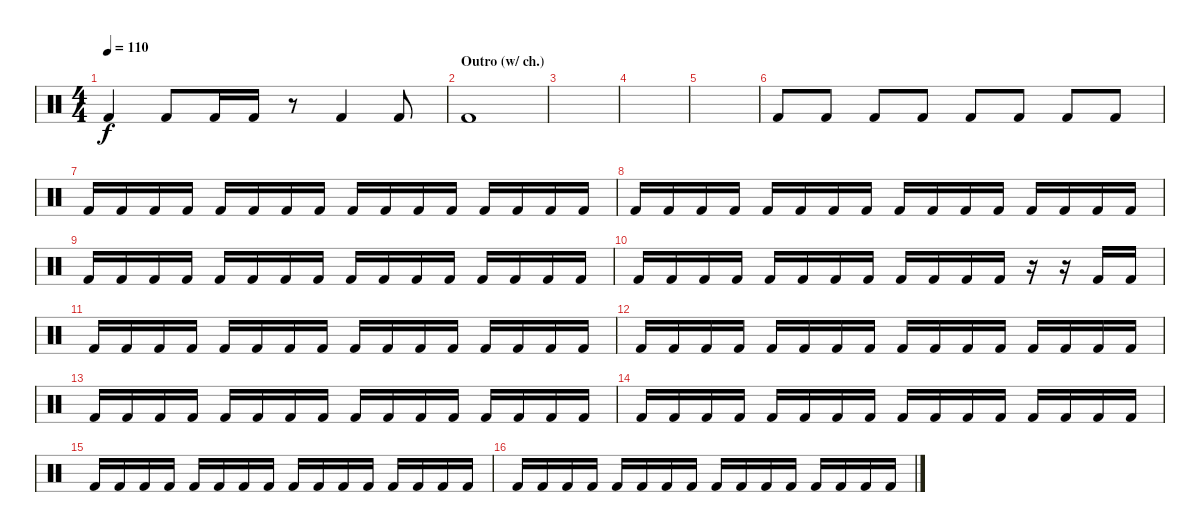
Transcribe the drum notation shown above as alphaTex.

\track "" {instrument percussion}
\staff {score}
\articulation defaults
\ts (4 4)
\tempo 110
\clef neutral
\ks c "Kick (hit) 2".4{dy f} "Kick (hit) 2".8 "Kick (hit) 2".16 "Kick (hit) 2".16
r.8 "Kick (hit) 2".4 "Kick (hit) 2".8 |
\section ("" "Outro (w/ ch.)")
"Kick (hit) 2".1 |
|
|
|
"Kick (hit) 2".8 "Kick (hit) 2".8 "Kick (hit) 2".8 "Kick (hit) 2".8 "Kick (hit) 2".8 "Kick (hit) 2".8 "Kick (hit) 2".8 "Kick (hit) 2".8 |
"Kick (hit) 2".16 "Kick (hit) 2".16 "Kick (hit) 2".16 "Kick (hit) 2".16 "Kick (hit) 2".16 "Kick (hit) 2".16 "Kick (hit) 2".16 "Kick (hit) 2".16 "Kick (hit) 2".16 "Kick (hit) 2".16 "Kick (hit) 2".16 "Kick (hit) 2".16 "Kick (hit) 2".16 "Kick (hit) 2".16 "Kick (hit) 2".16 "Kick (hit) 2".16 |
"Kick (hit) 2".16 "Kick (hit) 2".16 "Kick (hit) 2".16 "Kick (hit) 2".16 "Kick (hit) 2".16 "Kick (hit) 2".16 "Kick (hit) 2".16 "Kick (hit) 2".16 "Kick (hit) 2".16 "Kick (hit) 2".16 "Kick (hit) 2".16 "Kick (hit) 2".16 "Kick (hit) 2".16 "Kick (hit) 2".16 "Kick (hit) 2".16 "Kick (hit) 2".16 |
"Kick (hit) 2".16 "Kick (hit) 2".16 "Kick (hit) 2".16 "Kick (hit) 2".16 "Kick (hit) 2".16 "Kick (hit) 2".16 "Kick (hit) 2".16 "Kick (hit) 2".16 "Kick (hit) 2".16 "Kick (hit) 2".16 "Kick (hit) 2".16 "Kick (hit) 2".16 "Kick (hit) 2".16 "Kick (hit) 2".16 "Kick (hit) 2".16 "Kick (hit) 2".16 |
"Kick (hit) 2".16 "Kick (hit) 2".16 "Kick (hit) 2".16 "Kick (hit) 2".16 "Kick (hit) 2".16 "Kick (hit) 2".16 "Kick (hit) 2".16 "Kick (hit) 2".16 "Kick (hit) 2".16 "Kick (hit) 2".16 "Kick (hit) 2".16 "Kick (hit) 2".16 r.16 r.16 "Kick (hit) 2".16 "Kick (hit) 2".16 |
"Kick (hit) 2".16 "Kick (hit) 2".16 "Kick (hit) 2".16 "Kick (hit) 2".16 "Kick (hit) 2".16 "Kick (hit) 2".16 "Kick (hit) 2".16 "Kick (hit) 2".16 "Kick (hit) 2".16 "Kick (hit) 2".16 "Kick (hit) 2".16 "Kick (hit) 2".16 "Kick (hit) 2".16 "Kick (hit) 2".16 "Kick (hit) 2".16 "Kick (hit) 2".16 |
"Kick (hit) 2".16 "Kick (hit) 2".16 "Kick (hit) 2".16 "Kick (hit) 2".16 "Kick (hit) 2".16 "Kick (hit) 2".16 "Kick (hit) 2".16 "Kick (hit) 2".16 "Kick (hit) 2".16 "Kick (hit) 2".16 "Kick (hit) 2".16 "Kick (hit) 2".16 "Kick (hit) 2".16 "Kick (hit) 2".16 "Kick (hit) 2".16 "Kick (hit) 2".16 |
"Kick (hit) 2".16 "Kick (hit) 2".16 "Kick (hit) 2".16 "Kick (hit) 2".16 "Kick (hit) 2".16 "Kick (hit) 2".16 "Kick (hit) 2".16 "Kick (hit) 2".16 "Kick (hit) 2".16 "Kick (hit) 2".16 "Kick (hit) 2".16 "Kick (hit) 2".16 "Kick (hit) 2".16 "Kick (hit) 2".16 "Kick (hit) 2".16 "Kick (hit) 2".16 |
"Kick (hit) 2".16 "Kick (hit) 2".16 "Kick (hit) 2".16 "Kick (hit) 2".16 "Kick (hit) 2".16 "Kick (hit) 2".16 "Kick (hit) 2".16 "Kick (hit) 2".16 "Kick (hit) 2".16 "Kick (hit) 2".16 "Kick (hit) 2".16 "Kick (hit) 2".16 "Kick (hit) 2".16 "Kick (hit) 2".16 "Kick (hit) 2".16 "Kick (hit) 2".16 |
"Kick (hit) 2".16 "Kick (hit) 2".16 "Kick (hit) 2".16 "Kick (hit) 2".16 "Kick (hit) 2".16 "Kick (hit) 2".16 "Kick (hit) 2".16 "Kick (hit) 2".16 "Kick (hit) 2".16 "Kick (hit) 2".16 "Kick (hit) 2".16 "Kick (hit) 2".16 "Kick (hit) 2".16 "Kick (hit) 2".16 "Kick (hit) 2".16 "Kick (hit) 2".16 |
"Kick (hit) 2".16 "Kick (hit) 2".16 "Kick (hit) 2".16 "Kick (hit) 2".16 "Kick (hit) 2".16 "Kick (hit) 2".16 "Kick (hit) 2".16 "Kick (hit) 2".16 "Kick (hit) 2".16 "Kick (hit) 2".16 "Kick (hit) 2".16 "Kick (hit) 2".16 "Kick (hit) 2".16 "Kick (hit) 2".16 "Kick (hit) 2".16 "Kick (hit) 2".16
